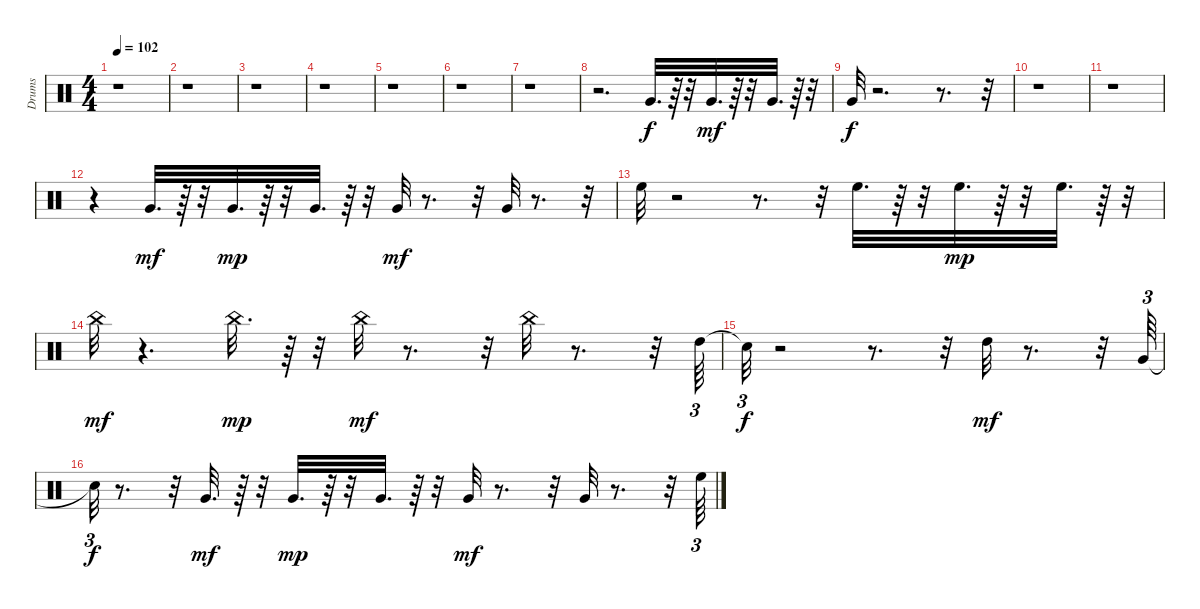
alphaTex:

\track ("Drums   " "Drums   ") {instrument percussion}
\staff {score}
\articulation defaults
\ts (4 4)
\tempo 102
\clef neutral
\ks c
r.1{dy mf} |
r.1 |
r.1 |
r.1 |
r.1 |
r.1 |
r.1 |
r.2{d} "Very Low Tom (hit)".32{d dy f} r.64 r.32 "Very Low Tom (hit)".32{d dy mf} r.64 r.32 "Very Low Tom (hit)".32{d} r.64 r.32 |
"Very Low Tom (hit)".32{dy f} r.2{d} r.8{d} r.32 |
r.1 |
r.1 |
r.4 "Very Low Tom (hit)".32{d dy mf} r.64 r.32 "Very Low Tom (hit)".32{d dy mp} r.64 r.32 "Very Low Tom (hit)".32{d} r.64 r.32 "Very Low Tom (hit)".32{dy mf} r.8{d} r.32 "Very Low Tom (hit)".32 r.8{d} r.32 |
"High Floor Tom (hit)".32 r.2 r.8{d} r.32 "High Floor Tom (hit)".32{d} r.64 r.32 "High Floor Tom (hit)".32{d dy mp} r.64 r.32 "High Floor Tom (hit)".32{d} r.64 r.32 |
"China (hit)".32{dy mf} r.4{d} "China (hit)".32{d dy mp} r.64 r.32 "China (hit)".32{dy mf} r.8{d} r.32 "China (hit)".32 r.8{d} r.32 "High Tom (hit)".64{tu (3 2)} |
"Snare (hit)"{t}.32{tu (3 2) dy f} r.2 r.8{d} r.32 "High Tom (hit)".32{dy mf} r.8{d} r.32 "Very Low Tom (hit)".64{tu (3 2)} |
"Snare (hit)"{t}.32{tu (3 2) dy f} r.8{d} r.32 "Very Low Tom (hit)".32{d dy mf} r.64 r.32 "Very Low Tom (hit)".32{d dy mp} r.64 r.32 "Very Low Tom (hit)".32{d} r.64 r.32 "Very Low Tom (hit)".32{dy mf} r.8{d} r.32 "Very Low Tom (hit)".32 r.8{d} r.32 "High Floor Tom (hit)".64{tu (3 2)}
